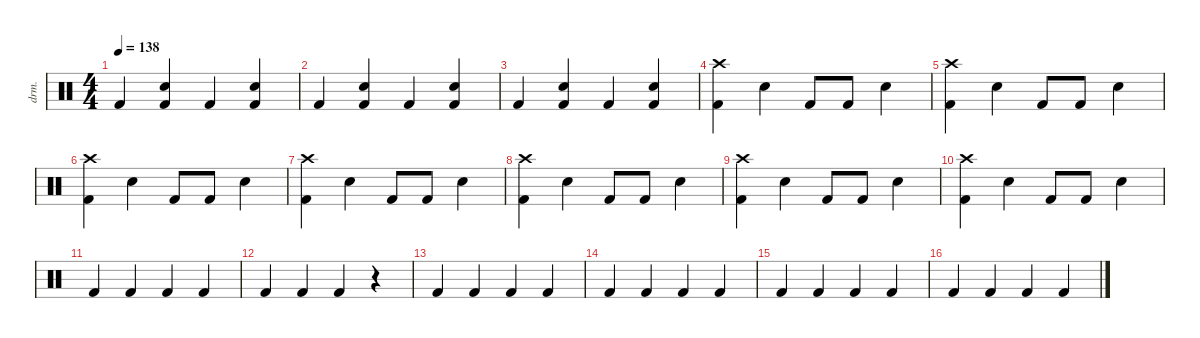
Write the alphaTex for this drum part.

\defaultSystemsLayout 4
\hideDynamics
\bracketExtendMode nobrackets
\otherSystemsTrackNameOrientation horizontal
\track ("Drumkit" "drm.") {instrument percussion bank 128}
\staff {score}
\articulation defaults
\ts (4 4)
\tempo 138
\clef neutral
\ks c "Kick (hit) 2".4{dy mf beam Up}
("Kick (hit) 2" "Snare (hit) 2").4{beam Up} "Kick (hit) 2".4{beam Up} ("Kick (hit) 2" "Snare (hit) 2").4{beam Up} |
"Kick (hit) 2".4{beam Up} ("Kick (hit) 2" "Snare (hit) 2").4{beam Up} "Kick (hit) 2".4{beam Up} ("Kick (hit) 2" "Snare (hit) 2").4{beam Up} |
"Kick (hit) 2".4{beam Up} ("Kick (hit) 2" "Snare (hit) 2").4{beam Up} "Kick (hit) 2".4{beam Up} ("Kick (hit) 2" "Snare (hit) 2").4{beam Up} |
("Crash high (hit)" "Kick (hit) 2").4{beam Down} "Snare (hit) 2".4{beam Down} "Kick (hit) 2".8{beam Up} "Kick (hit) 2".8{beam Up} "Snare (hit) 2".4{beam Down} |
("Crash high (hit)" "Kick (hit) 2").4{beam Down} "Snare (hit) 2".4{beam Down} "Kick (hit) 2".8{beam Up} "Kick (hit) 2".8{beam Up} "Snare (hit) 2".4{beam Down} |
("Crash high (hit)" "Kick (hit) 2").4{beam Down} "Snare (hit) 2".4{beam Down} "Kick (hit) 2".8{beam Up} "Kick (hit) 2".8{beam Up} "Snare (hit) 2".4{beam Down} |
("Crash high (hit)" "Kick (hit) 2").4{beam Down} "Snare (hit) 2".4{beam Down} "Kick (hit) 2".8{beam Up} "Kick (hit) 2".8{beam Up} "Snare (hit) 2".4{beam Down} |
("Crash high (hit)" "Kick (hit) 2").4{beam Down} "Snare (hit) 2".4{beam Down} "Kick (hit) 2".8{beam Up} "Kick (hit) 2".8{beam Up} "Snare (hit) 2".4{beam Down} |
("Crash high (hit)" "Kick (hit) 2").4{beam Down} "Snare (hit) 2".4{beam Down} "Kick (hit) 2".8{beam Up} "Kick (hit) 2".8{beam Up} "Snare (hit) 2".4{beam Down} |
("Crash high (hit)" "Kick (hit) 2").4{beam Down} "Snare (hit) 2".4{beam Down} "Kick (hit) 2".8{beam Up} "Kick (hit) 2".8{beam Up} "Snare (hit) 2".4{beam Down} |
"Kick (hit) 2".4{beam Up} "Kick (hit) 2".4{beam Up} "Kick (hit) 2".4{beam Up} "Kick (hit) 2".4{beam Up} |
"Kick (hit) 2".4{beam Up} "Kick (hit) 2".4{beam Up} "Kick (hit) 2".4{beam Up} r.4{beam Up} |
"Kick (hit) 2".4{beam Up} "Kick (hit) 2".4{beam Up} "Kick (hit) 2".4{beam Up} "Kick (hit) 2".4{beam Up} |
"Kick (hit) 2".4{beam Up} "Kick (hit) 2".4{beam Up} "Kick (hit) 2".4{beam Up} "Kick (hit) 2".4{beam Up} |
"Kick (hit) 2".4{beam Up} "Kick (hit) 2".4{beam Up} "Kick (hit) 2".4{beam Up} "Kick (hit) 2".4{beam Up} |
"Kick (hit) 2".4{beam Up} "Kick (hit) 2".4{beam Up} "Kick (hit) 2".4{beam Up} "Kick (hit) 2".4{beam Up}
